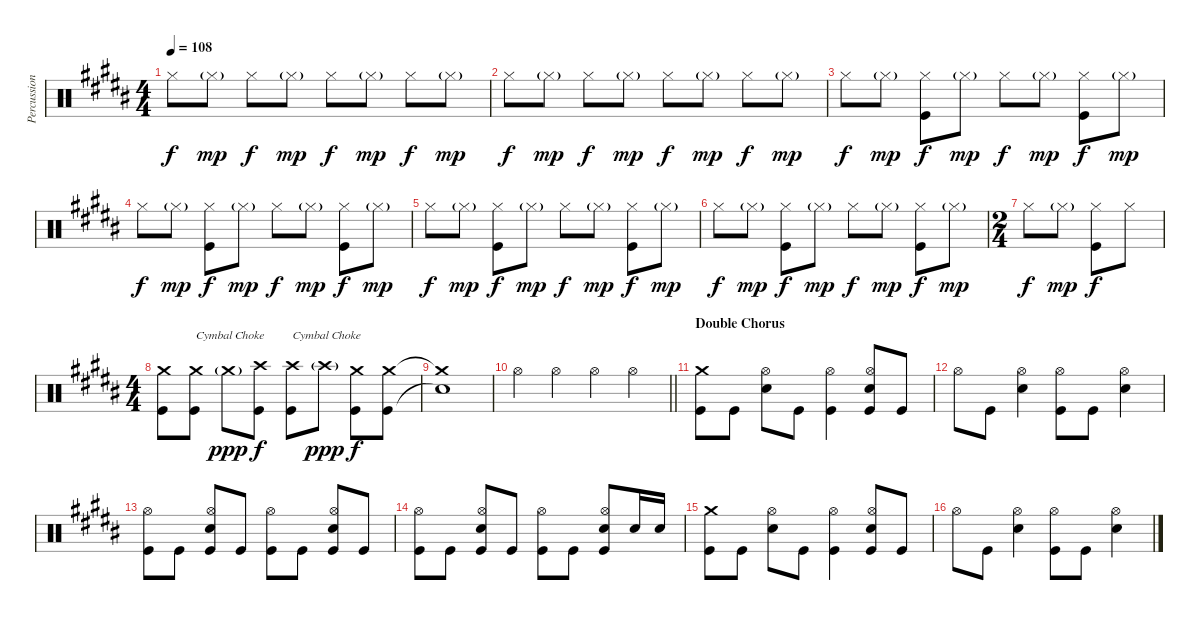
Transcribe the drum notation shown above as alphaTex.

\track ("Percussion" "Percussion") {instrument percussion}
\staff {score}
\articulation defaults
\ts (4 4)
\tempo 108
\clef neutral
\ks b "Hi-Hat (closed)".8{dy f} "Hi-Hat (closed)"{g}.8{dy mp} "Hi-Hat (closed)".8{dy f} "Hi-Hat (closed)"{g}.8{dy mp} "Hi-Hat (closed)".8{dy f} "Hi-Hat (closed)"{g}.8{dy mp} "Hi-Hat (closed)".8{dy f} "Hi-Hat (closed)"{g}.8{dy mp}
|
"Hi-Hat (closed)".8{dy f} "Hi-Hat (closed)"{g}.8{dy mp} "Hi-Hat (closed)".8{dy f} "Hi-Hat (closed)"{g}.8{dy mp} "Hi-Hat (closed)".8{dy f} "Hi-Hat (closed)"{g}.8{dy mp} "Hi-Hat (closed)".8{dy f} "Hi-Hat (closed)"{g}.8{dy mp} |
"Hi-Hat (closed)".8{dy f} "Hi-Hat (closed)"{g}.8{dy mp} ("Hi-Hat (closed)" "Kick (hit)").8{dy f} "Hi-Hat (closed)"{g}.8{dy mp} "Hi-Hat (closed)".8{dy f} "Hi-Hat (closed)"{g}.8{dy mp} ("Hi-Hat (closed)" "Kick (hit)").8{dy f} "Hi-Hat (closed)"{g}.8{dy mp} |
"Hi-Hat (closed)".8{dy f} "Hi-Hat (closed)"{g}.8{dy mp} ("Hi-Hat (closed)" "Kick (hit)").8{dy f} "Hi-Hat (closed)"{g}.8{dy mp} "Hi-Hat (closed)".8{dy f} "Hi-Hat (closed)"{g}.8{dy mp} ("Hi-Hat (closed)" "Kick (hit)").8{dy f} "Hi-Hat (closed)"{g}.8{dy mp} |
"Hi-Hat (closed)".8{dy f} "Hi-Hat (closed)"{g}.8{dy mp} ("Hi-Hat (closed)" "Kick (hit)").8{dy f} "Hi-Hat (closed)"{g}.8{dy mp} "Hi-Hat (closed)".8{dy f} "Hi-Hat (closed)"{g}.8{dy mp} ("Hi-Hat (closed)" "Kick (hit)").8{dy f} "Hi-Hat (closed)"{g}.8{dy mp} |
"Hi-Hat (closed)".8{dy f} "Hi-Hat (closed)"{g}.8{dy mp} ("Hi-Hat (closed)" "Kick (hit)").8{dy f} "Hi-Hat (closed)"{g}.8{dy mp} "Hi-Hat (closed)".8{dy f} "Hi-Hat (closed)"{g}.8{dy mp} ("Hi-Hat (closed)" "Kick (hit)").8{dy f} "Hi-Hat (closed)"{g}.8{dy mp} |
\ts (2 4)
"Hi-Hat (closed)".8{dy f} "Hi-Hat (closed)"{g}.8{dy mp} ("Hi-Hat (closed)" "Kick (hit)").8{dy f} "Hi-Hat (closed)".8 |
\ts (4 4)
("Crash medium (hit)" "Kick (hit)").8 ("Crash medium (hit)" "Kick (hit)").8{txt "Cymbal Choke"} "Crash medium (hit)"{g}.8{dy ppp volume 0} ("Crash high (hit)" "Kick (hit)").8{dy f volume 13} ("Crash high (hit)" "Kick (hit)").8{txt "Cymbal Choke"} "Crash high (hit)"{g}.8{dy ppp volume 0} ("Crash medium (hit)" "Kick (hit)").8{dy f volume 13} ("Crash medium (hit)" "Kick (hit)").8 |
("Crash medium (hit)"{t} "Snare (hit)"{t}).1 |
\barLineRight lightlight "Hi-Hat (open)".4 "Hi-Hat (open)".4 "Hi-Hat (open)".4 "Hi-Hat (open)".4
|
\section ("" "Double Chorus")
("Crash medium (hit)" "Kick (hit)").8 "Kick (hit)".8 ("Hi-Hat (open)" "Electric Snare (hit)").8 "Kick (hit)".8 ("Hi-Hat (open)" "Kick (hit)").4 ("Hi-Hat (open)" "Electric Snare (hit)" "Kick (hit)").8 "Kick (hit)".8 |
"Hi-Hat (open)".8 "Kick (hit)".8 ("Hi-Hat (open)" "Electric Snare (hit)").4 ("Hi-Hat (open)" "Kick (hit)").8 "Kick (hit)".8 ("Hi-Hat (open)" "Electric Snare (hit)").4 |
("Hi-Hat (open)" "Kick (hit)").8 "Kick (hit)".8 ("Hi-Hat (open)" "Electric Snare (hit)" "Kick (hit)").8 "Kick (hit)".8 ("Hi-Hat (open)" "Kick (hit)").8 "Kick (hit)".8 ("Hi-Hat (open)" "Electric Snare (hit)" "Kick (hit)").8 "Kick (hit)".8 |
("Hi-Hat (open)" "Kick (hit)").8 "Kick (hit)".8 ("Hi-Hat (open)" "Electric Snare (hit)" "Kick (hit)").8 "Kick (hit)".8 ("Hi-Hat (open)" "Kick (hit)").8 "Kick (hit)".8 ("Hi-Hat (open)" "Electric Snare (hit)" "Kick (hit)").8 "Electric Snare (hit)".16 "Electric Snare (hit)".16 |
("Crash medium (hit)" "Kick (hit)").8 "Kick (hit)".8 ("Hi-Hat (open)" "Electric Snare (hit)").8 "Kick (hit)".8 ("Hi-Hat (open)" "Kick (hit)").4 ("Hi-Hat (open)" "Electric Snare (hit)" "Kick (hit)").8 "Kick (hit)".8 |
"Hi-Hat (open)".8 "Kick (hit)".8 ("Hi-Hat (open)" "Electric Snare (hit)").4 ("Hi-Hat (open)" "Kick (hit)").8 "Kick (hit)".8 ("Hi-Hat (open)" "Electric Snare (hit)").4
